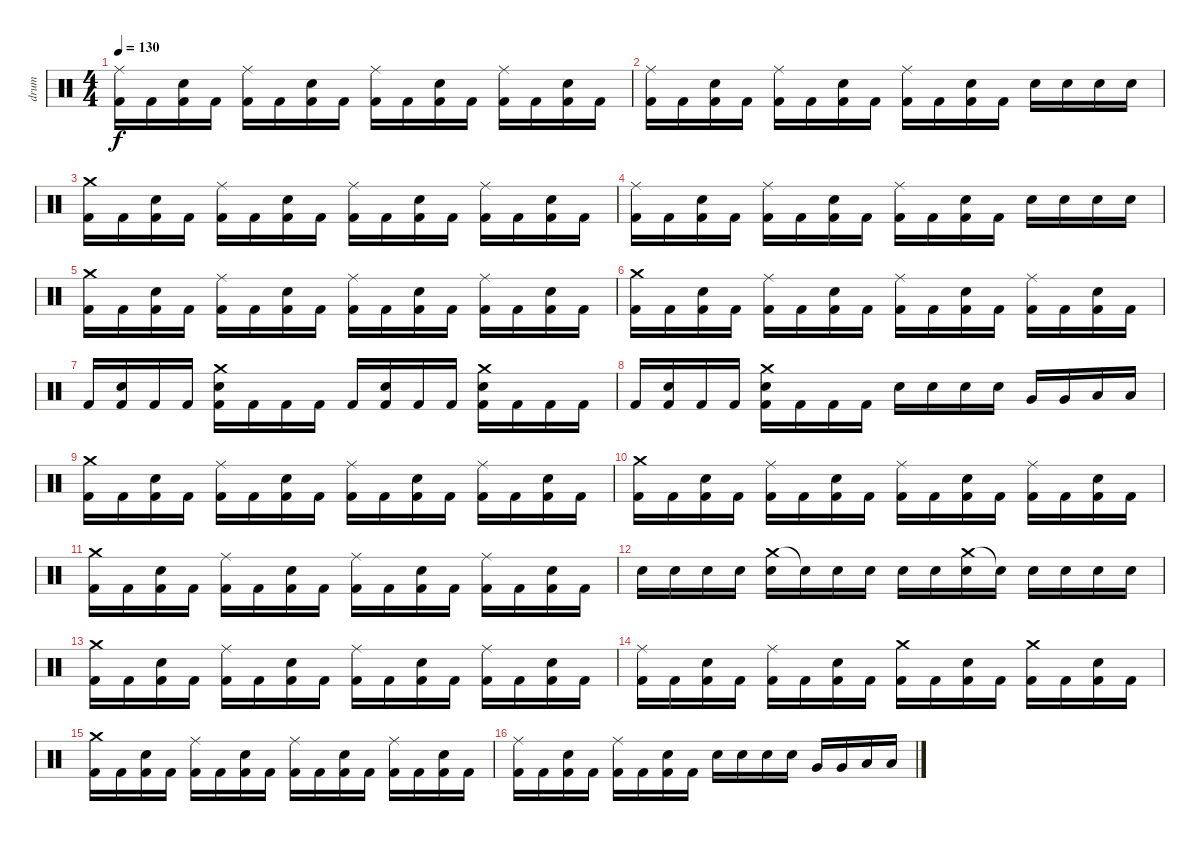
\track ("drum" "drum") {instrument percussion}
\staff {score}
\articulation defaults
\ts (4 4)
\tempo 130
\clef neutral
\ks c
("Ride (middle)" "Kick (hit) 2").16{dy f} "Kick (hit) 2".16 ("Snare (hit) 2" "Kick (hit) 2").16 "Kick (hit) 2".16 ("Ride (middle)" "Kick (hit) 2").16 "Kick (hit) 2".16 ("Snare (hit) 2" "Kick (hit) 2").16 "Kick (hit) 2".16 ("Ride (middle)" "Kick (hit) 2").16 "Kick (hit) 2".16 ("Snare (hit) 2" "Kick (hit) 2").16 "Kick (hit) 2".16 ("Ride (middle)" "Kick (hit) 2").16 "Kick (hit) 2".16 ("Snare (hit) 2" "Kick (hit) 2").16 "Kick (hit) 2".16 |
("Ride (middle)" "Kick (hit) 2").16 "Kick (hit) 2".16 ("Snare (hit) 2" "Kick (hit) 2").16 "Kick (hit) 2".16 ("Ride (middle)" "Kick (hit) 2").16 "Kick (hit) 2".16 ("Snare (hit) 2" "Kick (hit) 2").16 "Kick (hit) 2".16 ("Ride (middle)" "Kick (hit) 2").16 "Kick (hit) 2".16 ("Snare (hit) 2" "Kick (hit) 2").16 "Kick (hit) 2".16 "Snare (hit) 2".16 "Snare (hit) 2".16 "Snare (hit) 2".16 "Snare (hit) 2".16 |
("Crash medium (hit)" "Kick (hit) 2").16 "Kick (hit) 2".16 ("Snare (hit) 2" "Kick (hit) 2").16 "Kick (hit) 2".16 ("Ride (middle)" "Kick (hit) 2").16 "Kick (hit) 2".16 ("Snare (hit) 2" "Kick (hit) 2").16 "Kick (hit) 2".16 ("Ride (middle)" "Kick (hit) 2").16 "Kick (hit) 2".16 ("Snare (hit) 2" "Kick (hit) 2").16 "Kick (hit) 2".16 ("Ride (middle)" "Kick (hit) 2").16 "Kick (hit) 2".16 ("Snare (hit) 2" "Kick (hit) 2").16 "Kick (hit) 2".16 |
("Ride (middle)" "Kick (hit) 2").16 "Kick (hit) 2".16 ("Snare (hit) 2" "Kick (hit) 2").16 "Kick (hit) 2".16 ("Ride (middle)" "Kick (hit) 2").16 "Kick (hit) 2".16 ("Snare (hit) 2" "Kick (hit) 2").16 "Kick (hit) 2".16 ("Ride (middle)" "Kick (hit) 2").16 "Kick (hit) 2".16 ("Snare (hit) 2" "Kick (hit) 2").16 "Kick (hit) 2".16 "Snare (hit) 2".16 "Snare (hit) 2".16 "Snare (hit) 2".16 "Snare (hit) 2".16 |
("Crash medium (hit)" "Kick (hit) 2").16 "Kick (hit) 2".16 ("Snare (hit) 2" "Kick (hit) 2").16 "Kick (hit) 2".16 ("Ride (middle)" "Kick (hit) 2").16 "Kick (hit) 2".16 ("Snare (hit) 2" "Kick (hit) 2").16 "Kick (hit) 2".16 ("Ride (middle)" "Kick (hit) 2").16 "Kick (hit) 2".16 ("Snare (hit) 2" "Kick (hit) 2").16 "Kick (hit) 2".16 ("Ride (middle)" "Kick (hit) 2").16 "Kick (hit) 2".16 ("Snare (hit) 2" "Kick (hit) 2").16 "Kick (hit) 2".16 |
("Crash medium (hit)" "Kick (hit) 2").16 "Kick (hit) 2".16 ("Snare (hit) 2" "Kick (hit) 2").16 "Kick (hit) 2".16 ("Ride (middle)" "Kick (hit) 2").16 "Kick (hit) 2".16 ("Snare (hit) 2" "Kick (hit) 2").16 "Kick (hit) 2".16 ("Ride (middle)" "Kick (hit) 2").16 "Kick (hit) 2".16 ("Snare (hit) 2" "Kick (hit) 2").16 "Kick (hit) 2".16 ("Ride (middle)" "Kick (hit) 2").16 "Kick (hit) 2".16 ("Snare (hit) 2" "Kick (hit) 2").16 "Kick (hit) 2".16 |
"Kick (hit) 2".16 ("Snare (hit) 2" "Kick (hit) 2").16 "Kick (hit) 2".16 "Kick (hit) 2".16 ("Crash medium (hit)" "Snare (hit) 2" "Kick (hit) 2").16 "Kick (hit) 2".16 "Kick (hit) 2".16 "Kick (hit) 2".16 "Kick (hit) 2".16 ("Snare (hit) 2" "Kick (hit) 2").16 "Kick (hit) 2".16 "Kick (hit) 2".16 ("Crash medium (hit)" "Snare (hit) 2" "Kick (hit) 2").16 "Kick (hit) 2".16 "Kick (hit) 2".16 "Kick (hit) 2".16 |
"Kick (hit) 2".16 ("Snare (hit) 2" "Kick (hit) 2").16 "Kick (hit) 2".16 "Kick (hit) 2".16 ("Crash medium (hit)" "Snare (hit) 2" "Kick (hit) 2").16 "Kick (hit) 2".16 "Kick (hit) 2".16 "Kick (hit) 2".16 "Snare (hit) 2".16 "Snare (hit) 2".16 "Snare (hit) 2".16 "Snare (hit) 2".16 "Very Low Tom (hit)".16 "Very Low Tom (hit)".16 "Low Floor Tom (hit)".16 "Low Floor Tom (hit)".16 |
("Crash medium (hit)" "Kick (hit) 2").16 "Kick (hit) 2".16 ("Snare (hit) 2" "Kick (hit) 2").16 "Kick (hit) 2".16 ("Ride (middle)" "Kick (hit) 2").16 "Kick (hit) 2".16 ("Snare (hit) 2" "Kick (hit) 2").16 "Kick (hit) 2".16 ("Ride (middle)" "Kick (hit) 2").16 "Kick (hit) 2".16 ("Snare (hit) 2" "Kick (hit) 2").16 "Kick (hit) 2".16 ("Ride (middle)" "Kick (hit) 2").16 "Kick (hit) 2".16 ("Snare (hit) 2" "Kick (hit) 2").16 "Kick (hit) 2".16 |
("Crash medium (hit)" "Kick (hit) 2").16 "Kick (hit) 2".16 ("Snare (hit) 2" "Kick (hit) 2").16 "Kick (hit) 2".16 ("Ride (middle)" "Kick (hit) 2").16 "Kick (hit) 2".16 ("Snare (hit) 2" "Kick (hit) 2").16 "Kick (hit) 2".16 ("Ride (middle)" "Kick (hit) 2").16 "Kick (hit) 2".16 ("Snare (hit) 2" "Kick (hit) 2").16 "Kick (hit) 2".16 ("Ride (middle)" "Kick (hit) 2").16 "Kick (hit) 2".16 ("Snare (hit) 2" "Kick (hit) 2").16 "Kick (hit) 2".16 |
("Crash medium (hit)" "Kick (hit) 2").16 "Kick (hit) 2".16 ("Snare (hit) 2" "Kick (hit) 2").16 "Kick (hit) 2".16 ("Ride (middle)" "Kick (hit) 2").16 "Kick (hit) 2".16 ("Snare (hit) 2" "Kick (hit) 2").16 "Kick (hit) 2".16 ("Ride (middle)" "Kick (hit) 2").16 "Kick (hit) 2".16 ("Snare (hit) 2" "Kick (hit) 2").16 "Kick (hit) 2".16 ("Ride (middle)" "Kick (hit) 2").16 "Kick (hit) 2".16 ("Snare (hit) 2" "Kick (hit) 2").16 "Kick (hit) 2".16 |
"Snare (hit) 2".16 "Snare (hit) 2".16 "Snare (hit) 2".16 "Snare (hit) 2".16 ("Crash medium (hit)" "Snare (hit) 2").16 "Snare (hit)"{t}.16 "Snare (hit) 2".16 "Snare (hit) 2".16 "Snare (hit) 2".16 "Snare (hit) 2".16 ("Crash medium (hit)" "Snare (hit) 2").16 "Snare (hit)"{t}.16 "Snare (hit) 2".16 "Snare (hit) 2".16 "Snare (hit) 2".16 "Snare (hit) 2".16 |
("Crash medium (hit)" "Kick (hit) 2").16 "Kick (hit) 2".16 ("Snare (hit) 2" "Kick (hit) 2").16 "Kick (hit) 2".16 ("Ride (middle)" "Kick (hit) 2").16 "Kick (hit) 2".16 ("Snare (hit) 2" "Kick (hit) 2").16 "Kick (hit) 2".16 ("Ride (middle)" "Kick (hit) 2").16 "Kick (hit) 2".16 ("Snare (hit) 2" "Kick (hit) 2").16 "Kick (hit) 2".16 ("Ride (middle)" "Kick (hit) 2").16 "Kick (hit) 2".16 ("Snare (hit) 2" "Kick (hit) 2").16 "Kick (hit) 2".16 |
("Ride (middle)" "Kick (hit) 2").16 "Kick (hit) 2".16 ("Snare (hit) 2" "Kick (hit) 2").16 "Kick (hit) 2".16 ("Ride (middle)" "Kick (hit) 2").16 "Kick (hit) 2".16 ("Snare (hit) 2" "Kick (hit) 2").16 "Kick (hit) 2".16 ("Crash medium (hit)" "Kick (hit) 2").16 "Kick (hit) 2".16 ("Snare (hit) 2" "Kick (hit) 2").16 "Kick (hit) 2".16 ("Crash medium (hit)" "Kick (hit) 2").16 "Kick (hit) 2".16 ("Snare (hit) 2" "Kick (hit) 2").16 "Kick (hit) 2".16 |
("Crash medium (hit)" "Kick (hit) 2").16 "Kick (hit) 2".16 ("Snare (hit) 2" "Kick (hit) 2").16 "Kick (hit) 2".16 ("Ride (middle)" "Kick (hit) 2").16 "Kick (hit) 2".16 ("Snare (hit) 2" "Kick (hit) 2").16 "Kick (hit) 2".16 ("Ride (middle)" "Kick (hit) 2").16 "Kick (hit) 2".16 ("Snare (hit) 2" "Kick (hit) 2").16 "Kick (hit) 2".16 ("Ride (middle)" "Kick (hit) 2").16 "Kick (hit) 2".16 ("Snare (hit) 2" "Kick (hit) 2").16 "Kick (hit) 2".16 |
("Ride (middle)" "Kick (hit) 2").16 "Kick (hit) 2".16 ("Snare (hit) 2" "Kick (hit) 2").16 "Kick (hit) 2".16 ("Ride (middle)" "Kick (hit) 2").16 "Kick (hit) 2".16 ("Snare (hit) 2" "Kick (hit) 2").16 "Kick (hit) 2".16 "Snare (hit) 2".16 "Snare (hit) 2".16 "Snare (hit) 2".16 "Snare (hit) 2".16 "Very Low Tom (hit)".16 "Very Low Tom (hit)".16 "Low Floor Tom (hit)".16 "Low Floor Tom (hit)".16
